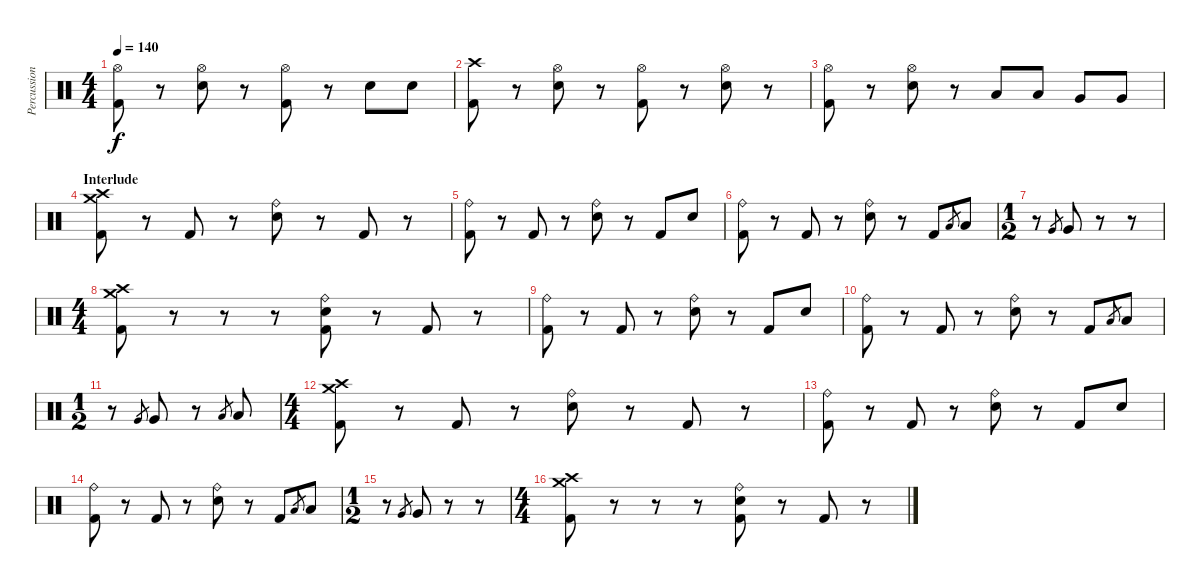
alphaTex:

\track ("Percussion" "Percussion") {instrument percussion}
\staff {score}
\articulation defaults
\ts (4 4)
\tempo 140
\clef neutral
\ks c
("Hi-Hat (open)" "Kick (hit) 2").8{dy f} r.8 ("Hi-Hat (open)" "Electric Snare (hit)").8 r.8 ("Hi-Hat (open)" "Kick (hit) 2").8 r.8 "Electric Snare (hit)".8 "Electric Snare (hit)".8 |
("Crash high (hit)" "Kick (hit) 2").8 r.8 ("Hi-Hat (open)" "Electric Snare (hit)").8 r.8 ("Hi-Hat (open)" "Kick (hit) 2").8 r.8 ("Hi-Hat (open)" "Electric Snare (hit)").8 r.8 |
("Hi-Hat (open)" "Kick (hit) 2").8 r.8 ("Hi-Hat (open)" "Electric Snare (hit)").8 r.8 "Low Tom (hit)".8 "Low Tom (hit)".8 "Very Low Tom (hit)".8 "Very Low Tom (hit)".8 |
\section ("" "Interlude")
("Crash high (hit)" "Crash medium (hit)" "Kick (hit) 2").8 r.8 "Kick (hit) 2".8 r.8 ("Ride (bell)" "Electric Snare (hit)").8 r.8 "Kick (hit) 2".8 r.8 |
("Ride (bell)" "Kick (hit) 2").8 r.8 "Kick (hit) 2".8 r.8 ("Ride (bell)" "Electric Snare (hit)").8 r.8 "Kick (hit) 2".8 "Electric Snare (hit)".8 |
("Ride (bell)" "Kick (hit) 2").8 r.8 "Kick (hit) 2".8 r.8 ("Ride (bell)" "Electric Snare (hit)").8 r.8 "Kick (hit) 2".8 "Low Tom (hit)".8{gr} "Low Tom (hit)".8 |
\ts (1 2)
r.8 "Very Low Tom (hit)".8{gr} "Very Low Tom (hit)".8 r.8 r.8 |
\ts (4 4)
("Crash medium (hit)" "Crash high (hit)" "Kick (hit) 2").8 r.8 r.8 r.8 ("Ride (bell)" "Electric Snare (hit)" "Kick (hit) 2").8 r.8 "Kick (hit) 2".8 r.8 |
("Ride (bell)" "Kick (hit) 2").8 r.8 "Kick (hit) 2".8 r.8 ("Ride (bell)" "Electric Snare (hit)").8 r.8 "Kick (hit) 2".8 "Electric Snare (hit)".8 |
("Ride (bell)" "Kick (hit) 2").8 r.8 "Kick (hit) 2".8 r.8 ("Ride (bell)" "Electric Snare (hit)").8 r.8 "Kick (hit) 2".8 "Low Tom (hit)".8{gr} "Low Tom (hit)".8 |
\ts (1 2)
r.8 "Very Low Tom (hit)".8{gr} "Very Low Tom (hit)".8 r.8 "Low Floor Tom (hit)".8{gr} "Low Floor Tom (hit)".8 |
\ts (4 4)
("Crash high (hit)" "Crash medium (hit)" "Kick (hit) 2").8 r.8 "Kick (hit) 2".8 r.8 ("Ride (bell)" "Electric Snare (hit)").8 r.8 "Kick (hit) 2".8 r.8 |
("Ride (bell)" "Kick (hit) 2").8 r.8 "Kick (hit) 2".8 r.8 ("Ride (bell)" "Electric Snare (hit)").8 r.8 "Kick (hit) 2".8 "Electric Snare (hit)".8 |
("Ride (bell)" "Kick (hit) 2").8 r.8 "Kick (hit) 2".8 r.8 ("Ride (bell)" "Electric Snare (hit)").8 r.8 "Kick (hit) 2".8 "Low Tom (hit)".8{gr} "Low Tom (hit)".8 |
\ts (1 2)
r.8 "Very Low Tom (hit)".8{gr} "Very Low Tom (hit)".8 r.8 r.8 |
\ts (4 4)
("Crash medium (hit)" "Crash high (hit)" "Kick (hit) 2").8 r.8 r.8 r.8 ("Ride (bell)" "Electric Snare (hit)" "Kick (hit) 2").8 r.8 "Kick (hit) 2".8 r.8
